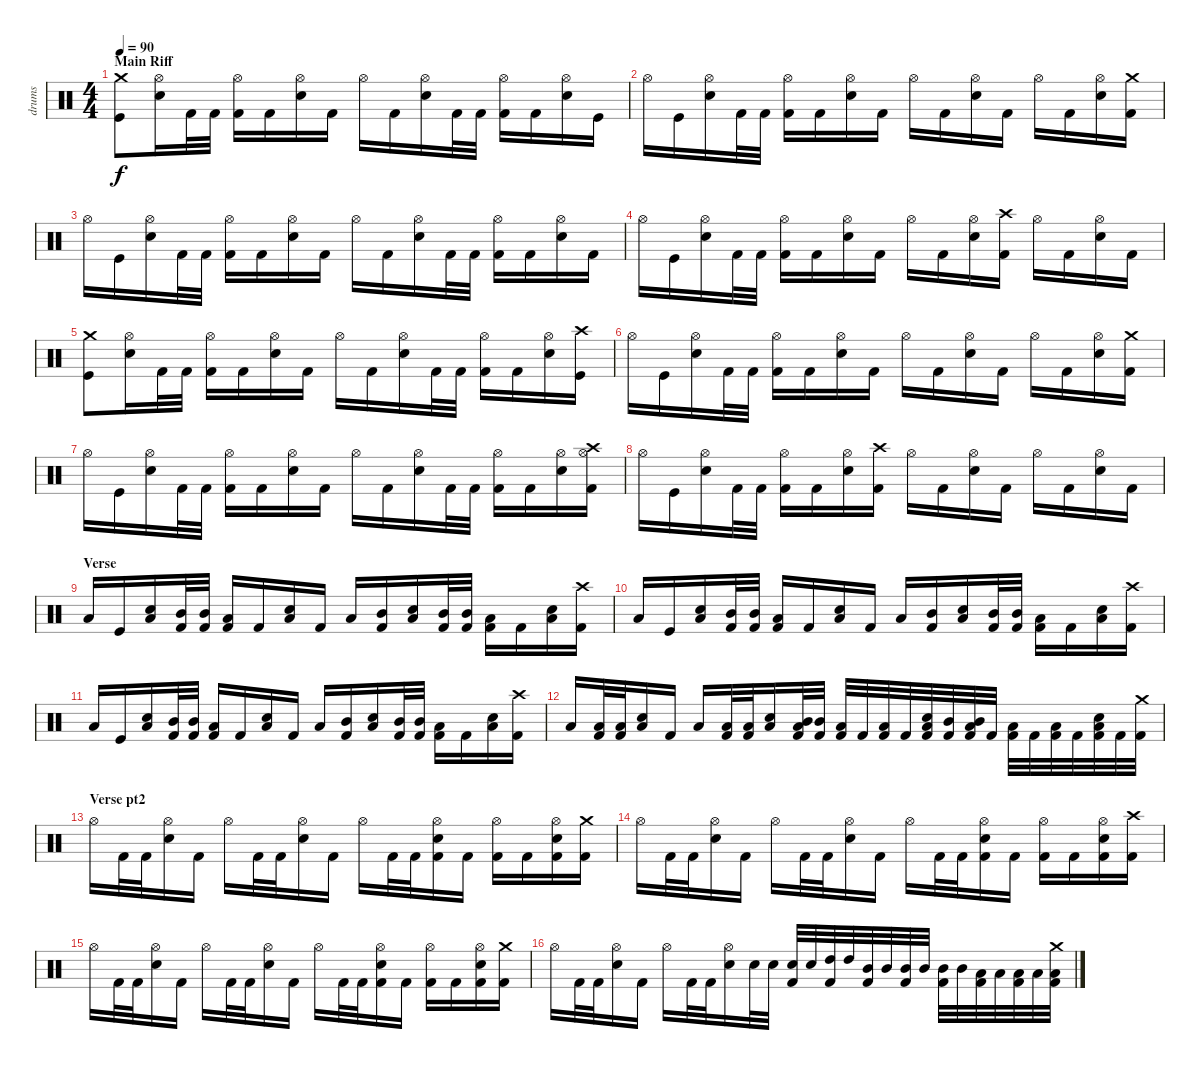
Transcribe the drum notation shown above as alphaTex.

\track ("drums" "drums") {instrument percussion}
\staff {score}
\articulation defaults
\ts (4 4)
\section ("" "Main Riff")
\tempo 90
\clef neutral
\ks c
("Crash medium (hit)" "Kick (hit)").8{dy f} ("Hi-Hat (open)" "Electric Snare (hit)").16 "Kick (hit) 2".32 "Kick (hit) 2".32 ("Hi-Hat (open)" "Kick (hit) 2").16 "Kick (hit) 2".16 ("Hi-Hat (open)" "Electric Snare (hit)").16 "Kick (hit) 2".16 "Hi-Hat (open)".16 "Kick (hit) 2".16 ("Hi-Hat (open)" "Electric Snare (hit)").16 "Kick (hit) 2".32 "Kick (hit) 2".32 ("Hi-Hat (open)" "Kick (hit) 2").16 "Kick (hit) 2".16 ("Hi-Hat (open)" "Electric Snare (hit)").16 "Kick (hit)".16 |
"Hi-Hat (open)".16 "Kick (hit)".16 ("Hi-Hat (open)" "Electric Snare (hit)").16 "Kick (hit) 2".32 "Kick (hit) 2".32 ("Hi-Hat (open)" "Kick (hit) 2").16 "Kick (hit) 2".16 ("Hi-Hat (open)" "Electric Snare (hit)").16 "Kick (hit) 2".16 "Hi-Hat (open)".16 "Kick (hit) 2".16 ("Hi-Hat (open)" "Electric Snare (hit)").16 "Kick (hit) 2".16 "Hi-Hat (open)".16 "Kick (hit) 2".16 ("Hi-Hat (open)" "Electric Snare (hit)").16 ("Crash medium (hit)" "Kick (hit) 2").16 |
"Hi-Hat (open)".16 "Kick (hit)".16 ("Hi-Hat (open)" "Electric Snare (hit)").16 "Kick (hit) 2".32 "Kick (hit) 2".32 ("Hi-Hat (open)" "Kick (hit) 2").16 "Kick (hit) 2".16 ("Hi-Hat (open)" "Electric Snare (hit)").16 "Kick (hit) 2".16 "Hi-Hat (open)".16 "Kick (hit) 2".16 ("Hi-Hat (open)" "Electric Snare (hit)").16 "Kick (hit) 2".32 "Kick (hit) 2".32 ("Hi-Hat (open)" "Kick (hit) 2").16 "Kick (hit) 2".16 ("Hi-Hat (open)" "Electric Snare (hit)").16 "Kick (hit) 2".16 |
"Hi-Hat (open)".16 "Kick (hit)".16 ("Hi-Hat (open)" "Electric Snare (hit)").16 "Kick (hit) 2".32 "Kick (hit) 2".32 ("Hi-Hat (open)" "Kick (hit) 2").16 "Kick (hit) 2".16 ("Hi-Hat (open)" "Electric Snare (hit)").16 "Kick (hit) 2".16 "Hi-Hat (open)".16 "Kick (hit) 2".16 ("Hi-Hat (open)" "Electric Snare (hit)").16 ("Crash high (hit)" "Kick (hit) 2").16 "Hi-Hat (open)".16 "Kick (hit) 2".16 ("Hi-Hat (open)" "Electric Snare (hit)").16 "Kick (hit) 2".16 |
("Crash medium (hit)" "Kick (hit)").8 ("Hi-Hat (open)" "Electric Snare (hit)").16 "Kick (hit) 2".32 "Kick (hit) 2".32 ("Hi-Hat (open)" "Kick (hit) 2").16 "Kick (hit) 2".16 ("Hi-Hat (open)" "Electric Snare (hit)").16 "Kick (hit) 2".16 "Hi-Hat (open)".16 "Kick (hit) 2".16 ("Hi-Hat (open)" "Electric Snare (hit)").16 "Kick (hit) 2".32 "Kick (hit) 2".32 ("Hi-Hat (open)" "Kick (hit) 2").16 "Kick (hit) 2".16 ("Hi-Hat (open)" "Electric Snare (hit)").16 ("Crash high (hit)" "Kick (hit)").16 |
"Hi-Hat (open)".16 "Kick (hit)".16 ("Hi-Hat (open)" "Electric Snare (hit)").16 "Kick (hit) 2".32 "Kick (hit) 2".32 ("Hi-Hat (open)" "Kick (hit) 2").16 "Kick (hit) 2".16 ("Hi-Hat (open)" "Electric Snare (hit)").16 "Kick (hit) 2".16 "Hi-Hat (open)".16 "Kick (hit) 2".16 ("Hi-Hat (open)" "Electric Snare (hit)").16 "Kick (hit) 2".16 "Hi-Hat (open)".16 "Kick (hit) 2".16 ("Hi-Hat (open)" "Electric Snare (hit)").16 ("Crash medium (hit)" "Kick (hit) 2").16 |
"Hi-Hat (open)".16 "Kick (hit)".16 ("Hi-Hat (open)" "Electric Snare (hit)").16 "Kick (hit) 2".32 "Kick (hit) 2".32 ("Hi-Hat (open)" "Kick (hit) 2").16 "Kick (hit) 2".16 ("Hi-Hat (open)" "Electric Snare (hit)").16 "Kick (hit) 2".16 "Hi-Hat (open)".16 "Kick (hit) 2".16 ("Hi-Hat (open)" "Electric Snare (hit)").16 "Kick (hit) 2".32 "Kick (hit) 2".32 ("Hi-Hat (open)" "Kick (hit) 2").16 "Kick (hit) 2".16 ("Hi-Hat (open)" "Electric Snare (hit)").16 ("Crash high (hit)" "Hi-Hat (open)" "Kick (hit) 2").16 |
"Hi-Hat (open)".16 "Kick (hit)".16 ("Hi-Hat (open)" "Electric Snare (hit)").16 "Kick (hit) 2".32 "Kick (hit) 2".32 ("Hi-Hat (open)" "Kick (hit) 2").16 "Kick (hit) 2".16 ("Hi-Hat (open)" "Electric Snare (hit)").16 ("Crash high (hit)" "Kick (hit) 2").16 "Hi-Hat (open)".16 "Kick (hit) 2".16 ("Hi-Hat (open)" "Electric Snare (hit)").16 "Kick (hit) 2".16 "Hi-Hat (open)".16 "Kick (hit) 2".16 ("Hi-Hat (open)" "Electric Snare (hit)").16 "Kick (hit) 2".16 |
\section ("" "Verse")
"Low Tom (hit)".16 "Kick (hit)".16 ("Low Tom (hit)" "Electric Snare (hit)").16 ("Mid Tom (hit)" "Kick (hit) 2").32 ("Mid Tom (hit)" "Kick (hit) 2").32 ("Low Tom (hit)" "Kick (hit) 2").16 "Kick (hit) 2".16 ("Low Tom (hit)" "Electric Snare (hit)").16 "Kick (hit) 2".16 "Low Tom (hit)".16 ("Mid Tom (hit)" "Kick (hit) 2").16 ("Low Tom (hit)" "Electric Snare (hit)").16 ("Mid Tom (hit)" "Kick (hit) 2").32 ("Mid Tom (hit)" "Kick (hit) 2").32 ("Low Tom (hit)" "Kick (hit) 2").16 "Kick (hit) 2".16 ("Low Tom (hit)" "Electric Snare (hit)").16 ("Crash high (hit)" "Kick (hit) 2").16 |
"Low Tom (hit)".16 "Kick (hit)".16 ("Low Tom (hit)" "Electric Snare (hit)").16 ("Mid Tom (hit)" "Kick (hit) 2").32 ("Mid Tom (hit)" "Kick (hit) 2").32 ("Low Tom (hit)" "Kick (hit) 2").16 "Kick (hit) 2".16 ("Low Tom (hit)" "Electric Snare (hit)").16 "Kick (hit) 2".16 "Low Tom (hit)".16 ("Mid Tom (hit)" "Kick (hit) 2").16 ("Low Tom (hit)" "Electric Snare (hit)").16 ("Mid Tom (hit)" "Kick (hit) 2").32 ("Mid Tom (hit)" "Kick (hit) 2").32 ("Low Tom (hit)" "Kick (hit) 2").16 "Kick (hit) 2".16 ("Low Tom (hit)" "Electric Snare (hit)").16 ("Crash high (hit)" "Kick (hit) 2").16 |
"Low Tom (hit)".16 "Kick (hit)".16 ("Low Tom (hit)" "Electric Snare (hit)").16 ("Mid Tom (hit)" "Kick (hit) 2").32 ("Mid Tom (hit)" "Kick (hit) 2").32 ("Low Tom (hit)" "Kick (hit) 2").16 "Kick (hit) 2".16 ("Low Tom (hit)" "Electric Snare (hit)").16 "Kick (hit) 2".16 "Low Tom (hit)".16 ("Mid Tom (hit)" "Kick (hit) 2").16 ("Low Tom (hit)" "Electric Snare (hit)").16 ("Mid Tom (hit)" "Kick (hit) 2").32 ("Mid Tom (hit)" "Kick (hit) 2").32 ("Low Tom (hit)" "Kick (hit) 2").16 "Kick (hit) 2".16 ("Low Tom (hit)" "Electric Snare (hit)").16 ("Crash high (hit)" "Kick (hit) 2").16 |
"Low Tom (hit)".16 ("Low Tom (hit)" "Kick (hit) 2").32 ("Low Tom (hit)" "Kick (hit) 2").32 ("Low Tom (hit)" "Electric Snare (hit)").16 "Kick (hit) 2".16 "Low Tom (hit)".16 ("Low Tom (hit)" "Kick (hit) 2").32 ("Low Tom (hit)" "Kick (hit) 2").32 ("Low Tom (hit)" "Electric Snare (hit)").16 ("Low Tom (hit)" "Mid Tom (hit)" "Kick (hit) 2").32 ("Mid Tom (hit)" "Kick (hit) 2").32 ("Low Tom (hit)" "Kick (hit) 2").32 "Kick (hit) 2".32 ("Low Tom (hit)" "Kick (hit) 2").32 "Kick (hit) 2".32 ("Low Tom (hit)" "Electric Snare (hit)" "Kick (hit) 2").32 ("Mid Tom (hit)" "Kick (hit) 2").32 ("Low Tom (hit)" "Mid Tom (hit)" "Kick (hit) 2").32 "Kick (hit) 2".32 ("Low Tom (hit)" "Kick (hit) 2").32 "Kick (hit) 2".32 ("Low Tom (hit)" "Kick (hit) 2").32 "Kick (hit) 2".32 ("Low Tom (hit)" "Electric Snare (hit)" "Kick (hit) 2").32 "Kick (hit) 2".32 ("Crash medium (hit)" "Kick (hit) 2").32 |
\section ("" "Verse pt2")
"Hi-Hat (open)".16 "Kick (hit) 2".32 "Kick (hit) 2".32 ("Hi-Hat (open)" "Electric Snare (hit)").16 "Kick (hit) 2".16 "Hi-Hat (open)".16 "Kick (hit) 2".32 "Kick (hit) 2".32 ("Hi-Hat (open)" "Electric Snare (hit)").16 "Kick (hit) 2".16 "Hi-Hat (open)".16 "Kick (hit) 2".32 "Kick (hit) 2".32 ("Hi-Hat (open)" "Electric Snare (hit)" "Kick (hit) 2").16 "Kick (hit) 2".16 ("Hi-Hat (open)" "Kick (hit) 2").16 "Kick (hit) 2".16 ("Hi-Hat (open)" "Electric Snare (hit)" "Kick (hit) 2").16 ("Crash medium (hit)" "Kick (hit) 2").16 |
"Hi-Hat (open)".16 "Kick (hit) 2".32 "Kick (hit) 2".32 ("Hi-Hat (open)" "Electric Snare (hit)").16 "Kick (hit) 2".16 "Hi-Hat (open)".16 "Kick (hit) 2".32 "Kick (hit) 2".32 ("Hi-Hat (open)" "Electric Snare (hit)").16 "Kick (hit) 2".16 "Hi-Hat (open)".16 "Kick (hit) 2".32 "Kick (hit) 2".32 ("Hi-Hat (open)" "Electric Snare (hit)" "Kick (hit) 2").16 "Kick (hit) 2".16 ("Hi-Hat (open)" "Kick (hit) 2").16 "Kick (hit) 2".16 ("Hi-Hat (open)" "Electric Snare (hit)" "Kick (hit) 2").16 ("Crash high (hit)" "Kick (hit) 2").16 |
"Hi-Hat (open)".16 "Kick (hit) 2".32 "Kick (hit) 2".32 ("Hi-Hat (open)" "Electric Snare (hit)").16 "Kick (hit) 2".16 "Hi-Hat (open)".16 "Kick (hit) 2".32 "Kick (hit) 2".32 ("Hi-Hat (open)" "Electric Snare (hit)").16 "Kick (hit) 2".16 "Hi-Hat (open)".16 "Kick (hit) 2".32 "Kick (hit) 2".32 ("Hi-Hat (open)" "Electric Snare (hit)" "Kick (hit) 2").16 "Kick (hit) 2".16 ("Hi-Hat (open)" "Kick (hit) 2").16 "Kick (hit) 2".16 ("Hi-Hat (open)" "Electric Snare (hit)" "Kick (hit) 2").16 ("Crash medium (hit)" "Kick (hit) 2").16 |
"Hi-Hat (open)".16 "Kick (hit) 2".32 "Kick (hit) 2".32 ("Hi-Hat (open)" "Electric Snare (hit)").16 "Kick (hit) 2".16 "Hi-Hat (open)".16 "Kick (hit) 2".32 "Kick (hit) 2".32 ("Hi-Hat (open)" "Electric Snare (hit)").16 "Electric Snare (hit)".32 "Electric Snare (hit)".32 ("Electric Snare (hit)" "Kick (hit) 2").32 "Electric Snare (hit)".32 ("High Tom (hit)" "Kick (hit) 2").32 "High Tom (hit)".32 ("Mid Tom (hit)" "Kick (hit) 2").32 "Mid Tom (hit)".32 ("Mid Tom (hit)" "Kick (hit) 2").32 "Mid Tom (hit)".32 ("Mid Tom (hit)" "Kick (hit) 2").32 "Mid Tom (hit)".32 ("Low Tom (hit)" "Kick (hit) 2").32 "Low Tom (hit)".32 ("Low Tom (hit)" "Kick (hit) 2").32 "Low Tom (hit)".32 ("Crash medium (hit)" "Low Tom (hit)" "Kick (hit) 2").32
